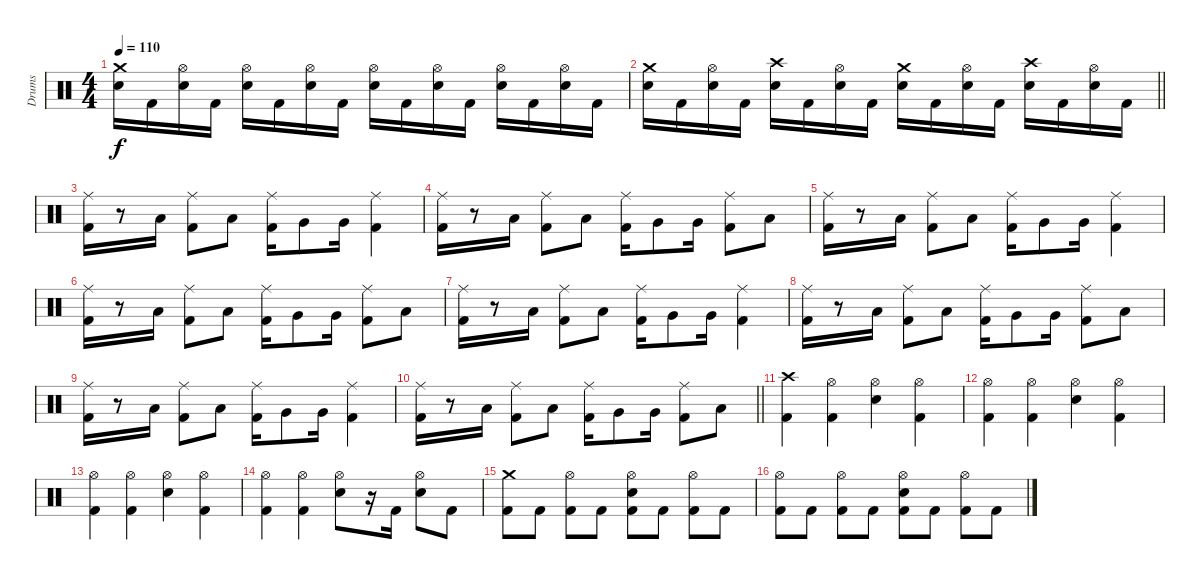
\track ("Drums" "Drums") {instrument percussion}
\staff {score}
\articulation defaults
\ts (4 4)
\tempo 110
\clef neutral
\ks c
("Crash medium (hit)" "Electric Snare (hit)").16{dy f} "Kick (hit) 2".16 ("Hi-Hat (open)" "Electric Snare (hit)").16 "Kick (hit) 2".16 ("Hi-Hat (open)" "Electric Snare (hit)").16 "Kick (hit) 2".16 ("Hi-Hat (open)" "Electric Snare (hit)").16 "Kick (hit) 2".16 ("Hi-Hat (open)" "Electric Snare (hit)").16 "Kick (hit) 2".16 ("Hi-Hat (open)" "Electric Snare (hit)").16 "Kick (hit) 2".16 ("Hi-Hat (open)" "Electric Snare (hit)").16 "Kick (hit) 2".16 ("Hi-Hat (open)" "Electric Snare (hit)").16 "Kick (hit) 2".16 |
\barLineRight lightlight
("Crash medium (hit)" "Electric Snare (hit)").16 "Kick (hit) 2".16 ("Hi-Hat (open)" "Electric Snare (hit)").16 "Kick (hit) 2".16 ("Crash high (hit)" "Electric Snare (hit)").16 "Kick (hit) 2".16 ("Hi-Hat (open)" "Electric Snare (hit)").16 "Kick (hit) 2".16 ("Crash medium (hit)" "Electric Snare (hit)").16 "Kick (hit) 2".16 ("Hi-Hat (open)" "Electric Snare (hit)").16 "Kick (hit) 2".16 ("Crash high (hit)" "Electric Snare (hit)").16 "Kick (hit) 2".16 ("Hi-Hat (open)" "Electric Snare (hit)").16 "Kick (hit) 2".16 |
\section ("" "")
("Ride (middle)" "Kick (hit) 2").16 r.8 "Low Tom (hit)".16 ("Ride (middle)" "Kick (hit) 2").8 "Low Tom (hit)".8 ("Ride (middle)" "Kick (hit) 2").16 "Very Low Tom (hit)".8 "Very Low Tom (hit)".16 ("Ride (middle)" "Kick (hit) 2").4 |
("Ride (middle)" "Kick (hit) 2").16 r.8 "Low Tom (hit)".16 ("Ride (middle)" "Kick (hit) 2").8 "Low Tom (hit)".8 ("Ride (middle)" "Kick (hit) 2").16 "Very Low Tom (hit)".8 "Very Low Tom (hit)".16 ("Ride (middle)" "Kick (hit) 2").8 "Low Tom (hit)".8 |
("Ride (middle)" "Kick (hit) 2").16 r.8 "Low Tom (hit)".16 ("Ride (middle)" "Kick (hit) 2").8 "Low Tom (hit)".8 ("Ride (middle)" "Kick (hit) 2").16 "Very Low Tom (hit)".8 "Very Low Tom (hit)".16 ("Ride (middle)" "Kick (hit) 2").4 |
("Ride (middle)" "Kick (hit) 2").16 r.8 "Low Tom (hit)".16 ("Ride (middle)" "Kick (hit) 2").8 "Low Tom (hit)".8 ("Ride (middle)" "Kick (hit) 2").16 "Very Low Tom (hit)".8 "Very Low Tom (hit)".16 ("Ride (middle)" "Kick (hit) 2").8 "Low Tom (hit)".8 |
("Ride (middle)" "Kick (hit) 2").16 r.8 "Low Tom (hit)".16 ("Ride (middle)" "Kick (hit) 2").8 "Low Tom (hit)".8 ("Ride (middle)" "Kick (hit) 2").16 "Very Low Tom (hit)".8 "Very Low Tom (hit)".16 ("Ride (middle)" "Kick (hit) 2").4 |
("Ride (middle)" "Kick (hit) 2").16 r.8 "Low Tom (hit)".16 ("Ride (middle)" "Kick (hit) 2").8 "Low Tom (hit)".8 ("Ride (middle)" "Kick (hit) 2").16 "Very Low Tom (hit)".8 "Very Low Tom (hit)".16 ("Ride (middle)" "Kick (hit) 2").8 "Low Tom (hit)".8 |
("Ride (middle)" "Kick (hit) 2").16 r.8 "Low Tom (hit)".16 ("Ride (middle)" "Kick (hit) 2").8 "Low Tom (hit)".8 ("Ride (middle)" "Kick (hit) 2").16 "Very Low Tom (hit)".8 "Very Low Tom (hit)".16 ("Ride (middle)" "Kick (hit) 2").4 |
\barLineRight lightlight
("Ride (middle)" "Kick (hit) 2").16 r.8 "Low Tom (hit)".16 ("Ride (middle)" "Kick (hit) 2").8 "Low Tom (hit)".8 ("Ride (middle)" "Kick (hit) 2").16 "Very Low Tom (hit)".8 "Very Low Tom (hit)".16 ("Ride (middle)" "Kick (hit) 2").8 "Low Tom (hit)".8 |
\section ("" "")
("Crash high (hit)" "Kick (hit) 2").4 ("Hi-Hat (open)" "Kick (hit) 2").4 ("Hi-Hat (open)" "Electric Snare (hit)").4 ("Hi-Hat (open)" "Kick (hit) 2").4 |
("Hi-Hat (open)" "Kick (hit) 2").4 ("Hi-Hat (open)" "Kick (hit) 2").4 ("Hi-Hat (open)" "Electric Snare (hit)").4 ("Hi-Hat (open)" "Kick (hit) 2").4 |
("Hi-Hat (open)" "Kick (hit) 2").4 ("Hi-Hat (open)" "Kick (hit) 2").4 ("Hi-Hat (open)" "Electric Snare (hit)").4 ("Hi-Hat (open)" "Kick (hit) 2").4 |
("Hi-Hat (open)" "Kick (hit) 2").4 ("Hi-Hat (open)" "Kick (hit) 2").4 ("Hi-Hat (open)" "Electric Snare (hit)").8 r.16 "Kick (hit) 2".16 ("Hi-Hat (open)" "Electric Snare (hit)").8 "Kick (hit) 2".8 |
("Crash medium (hit)" "Kick (hit) 2").8 "Kick (hit) 2".8 ("Hi-Hat (open)" "Kick (hit) 2").8 "Kick (hit) 2".8 ("Hi-Hat (open)" "Electric Snare (hit)" "Kick (hit) 2").8 "Kick (hit) 2".8 ("Hi-Hat (open)" "Kick (hit) 2").8 "Kick (hit) 2".8 |
("Hi-Hat (open)" "Kick (hit) 2").8 "Kick (hit) 2".8 ("Hi-Hat (open)" "Kick (hit) 2").8 "Kick (hit) 2".8 ("Hi-Hat (open)" "Electric Snare (hit)" "Kick (hit) 2").8 "Kick (hit) 2".8 ("Hi-Hat (open)" "Kick (hit) 2").8 "Kick (hit) 2".8
